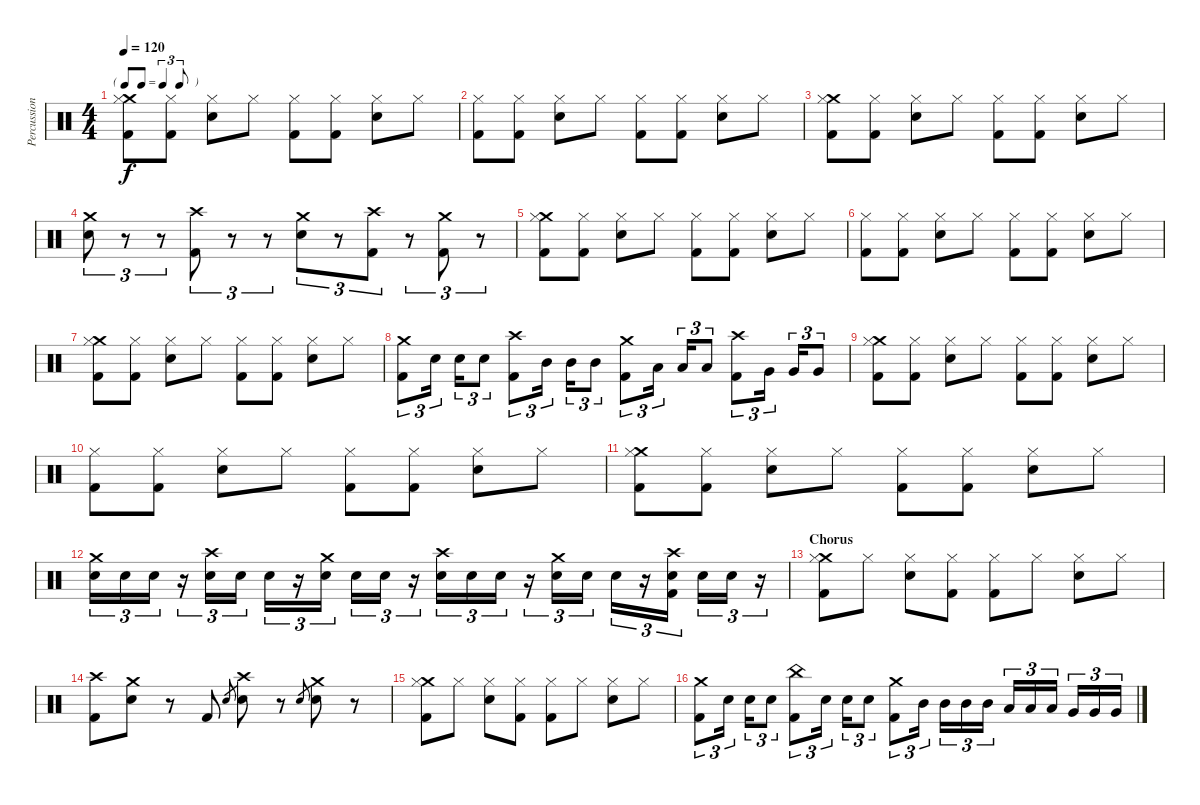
\track ("Percussion" "Percussion") {instrument percussion}
\staff {score}
\articulation defaults
\ts (4 4)
\tf triplet8th
\tempo 120
\clef neutral
\ks c
("Crash medium (hit)" "Hi-Hat (closed)" "Kick (hit) 2").8{dy f} ("Hi-Hat (closed)" "Kick (hit) 2").8 ("Hi-Hat (closed)" "Electric Snare (hit)").8 "Hi-Hat (closed)".8 ("Hi-Hat (closed)" "Kick (hit) 2").8 ("Hi-Hat (closed)" "Kick (hit) 2").8 ("Hi-Hat (closed)" "Electric Snare (hit)").8 "Hi-Hat (closed)".8 |
("Hi-Hat (closed)" "Kick (hit) 2").8 ("Hi-Hat (closed)" "Kick (hit) 2").8 ("Hi-Hat (closed)" "Electric Snare (hit)").8 "Hi-Hat (closed)".8 ("Hi-Hat (closed)" "Kick (hit) 2").8 ("Hi-Hat (closed)" "Kick (hit) 2").8 ("Hi-Hat (closed)" "Electric Snare (hit)").8 "Hi-Hat (closed)".8 |
("Crash medium (hit)" "Hi-Hat (closed)" "Kick (hit) 2").8 ("Hi-Hat (closed)" "Kick (hit) 2").8 ("Hi-Hat (closed)" "Electric Snare (hit)").8 "Hi-Hat (closed)".8 ("Hi-Hat (closed)" "Kick (hit) 2").8 ("Hi-Hat (closed)" "Kick (hit) 2").8 ("Hi-Hat (closed)" "Electric Snare (hit)").8 "Hi-Hat (closed)".8 |
("Crash medium (hit)" "Electric Snare (hit)").8{tu (3 2)} r.8{tu (3 2)} r.8{tu (3 2)} ("Crash high (hit)" "Kick (hit) 2").8{tu (3 2)} r.8{tu (3 2)} r.8{tu (3 2)} ("Crash medium (hit)" "Electric Snare (hit)").8{tu (3 2)} r.8{tu (3 2)} ("Crash high (hit)" "Kick (hit) 2").8{tu (3 2)} r.8{tu (3 2)} ("Crash medium (hit)" "Kick (hit) 2").8{tu (3 2)} r.8{tu (3 2)} |
("Crash medium (hit)" "Hi-Hat (closed)" "Kick (hit) 2").8 ("Hi-Hat (closed)" "Kick (hit) 2").8 ("Hi-Hat (closed)" "Electric Snare (hit)").8 "Hi-Hat (closed)".8 ("Hi-Hat (closed)" "Kick (hit) 2").8 ("Hi-Hat (closed)" "Kick (hit) 2").8 ("Hi-Hat (closed)" "Electric Snare (hit)").8 "Hi-Hat (closed)".8 |
("Hi-Hat (closed)" "Kick (hit) 2").8 ("Hi-Hat (closed)" "Kick (hit) 2").8 ("Hi-Hat (closed)" "Electric Snare (hit)").8 "Hi-Hat (closed)".8 ("Hi-Hat (closed)" "Kick (hit) 2").8 ("Hi-Hat (closed)" "Kick (hit) 2").8 ("Hi-Hat (closed)" "Electric Snare (hit)").8 "Hi-Hat (closed)".8 |
("Crash medium (hit)" "Hi-Hat (closed)" "Kick (hit) 2").8 ("Hi-Hat (closed)" "Kick (hit) 2").8 ("Hi-Hat (closed)" "Electric Snare (hit)").8 "Hi-Hat (closed)".8 ("Hi-Hat (closed)" "Kick (hit) 2").8 ("Hi-Hat (closed)" "Kick (hit) 2").8 ("Hi-Hat (closed)" "Electric Snare (hit)").8 "Hi-Hat (closed)".8 |
("Crash medium (hit)" "Kick (hit) 2").8{tu (3 2)} "Electric Snare (hit)".16{tu (3 2)} "Electric Snare (hit)".16{tu (3 2)} "Electric Snare (hit)".8{tu (3 2)} ("Crash high (hit)" "Kick (hit) 2").8{tu (3 2)} "Mid Tom (hit)".16{tu (3 2)} "Mid Tom (hit)".16{tu (3 2)} "Mid Tom (hit)".8{tu (3 2)} ("Crash medium (hit)" "Kick (hit) 2").8{tu (3 2)} "Low Tom (hit)".16{tu (3 2)} "Low Tom (hit)".16{tu (3 2)} "Low Tom (hit)".8{tu (3 2)} ("Crash high (hit)" "Kick (hit) 2").8{tu (3 2)} "Very Low Tom (hit)".16{tu (3 2)} "Very Low Tom (hit)".16{tu (3 2)} "Very Low Tom (hit)".8{tu (3 2)} |
("Crash medium (hit)" "Hi-Hat (closed)" "Kick (hit) 2").8 ("Hi-Hat (closed)" "Kick (hit) 2").8 ("Hi-Hat (closed)" "Electric Snare (hit)").8 "Hi-Hat (closed)".8 ("Hi-Hat (closed)" "Kick (hit) 2").8 ("Hi-Hat (closed)" "Kick (hit) 2").8 ("Hi-Hat (closed)" "Electric Snare (hit)").8 "Hi-Hat (closed)".8 |
("Hi-Hat (closed)" "Kick (hit) 2").8 ("Hi-Hat (closed)" "Kick (hit) 2").8 ("Hi-Hat (closed)" "Electric Snare (hit)").8 "Hi-Hat (closed)".8 ("Hi-Hat (closed)" "Kick (hit) 2").8 ("Hi-Hat (closed)" "Kick (hit) 2").8 ("Hi-Hat (closed)" "Electric Snare (hit)").8 "Hi-Hat (closed)".8 |
("Crash medium (hit)" "Hi-Hat (closed)" "Kick (hit) 2").8 ("Hi-Hat (closed)" "Kick (hit) 2").8 ("Hi-Hat (closed)" "Electric Snare (hit)").8 "Hi-Hat (closed)".8 ("Hi-Hat (closed)" "Kick (hit) 2").8 ("Hi-Hat (closed)" "Kick (hit) 2").8 ("Hi-Hat (closed)" "Electric Snare (hit)").8 "Hi-Hat (closed)".8 |
("Crash medium (hit)" "Electric Snare (hit)").16{tu (3 2)} "Electric Snare (hit)".16{tu (3 2)} "Electric Snare (hit)".16{tu (3 2)} r.16{tu (3 2)} ("Crash high (hit)" "Electric Snare (hit)").16{tu (3 2)} "Electric Snare (hit)".16{tu (3 2)} "Electric Snare (hit)".16{tu (3 2)} r.16{tu (3 2)} ("Crash medium (hit)" "Electric Snare (hit)").16{tu (3 2)} "Electric Snare (hit)".16{tu (3 2)} "Electric Snare (hit)".16{tu (3 2)} r.16{tu (3 2)} ("Crash high (hit)" "Electric Snare (hit)").16{tu (3 2)} "Electric Snare (hit)".16{tu (3 2)} "Electric Snare (hit)".16{tu (3 2)} r.16{tu (3 2)} ("Crash medium (hit)" "Electric Snare (hit)").16{tu (3 2)} "Electric Snare (hit)".16{tu (3 2)} "Electric Snare (hit)".16{tu (3 2)} r.16{tu (3 2)} ("Crash high (hit)" "Electric Snare (hit)" "Kick (hit) 2").16{tu (3 2)} "Electric Snare (hit)".16{tu (3 2)} "Electric Snare (hit)".16{tu (3 2)} r.16{tu (3 2)} |
\section ("" "Chorus")
("Crash medium (hit)" "Hi-Hat (closed)" "Kick (hit) 2").8 "Hi-Hat (closed)".8 ("Hi-Hat (closed)" "Electric Snare (hit)").8 ("Hi-Hat (closed)" "Kick (hit) 2").8 ("Hi-Hat (closed)" "Kick (hit) 2").8 "Hi-Hat (closed)".8 ("Hi-Hat (closed)" "Electric Snare (hit)").8 "Hi-Hat (closed)".8 |
("Crash high (hit)" "Kick (hit) 2").8 ("Crash medium (hit)" "Electric Snare (hit)").8 r.8 "Kick (hit) 2".8 "Electric Snare (hit)".8{gr} ("Crash high (hit)" "Electric Snare (hit)").8 r.8 "Electric Snare (hit)".8{gr} ("Crash medium (hit)" "Electric Snare (hit)").8 r.8 |
("Crash medium (hit)" "Hi-Hat (closed)" "Kick (hit) 2").8 "Hi-Hat (closed)".8 ("Hi-Hat (closed)" "Electric Snare (hit)").8 ("Hi-Hat (closed)" "Kick (hit) 2").8 ("Hi-Hat (closed)" "Kick (hit) 2").8 "Hi-Hat (closed)".8 ("Hi-Hat (closed)" "Electric Snare (hit)").8 "Hi-Hat (closed)".8 |
("Crash medium (hit)" "Kick (hit) 2").8{tu (3 2)} "Electric Snare (hit)".16{tu (3 2)} "Electric Snare (hit)".16{tu (3 2)} "Electric Snare (hit)".8{tu (3 2)} ("China (hit)" "Kick (hit) 2").8{tu (3 2)} "Electric Snare (hit)".16{tu (3 2)} "Electric Snare (hit)".16{tu (3 2)} "Electric Snare (hit)".8{tu (3 2)} ("Crash medium (hit)" "Kick (hit) 2").8{tu (3 2)} "Mid Tom (hit)".16{tu (3 2)} "Mid Tom (hit)".16{tu (3 2)} "Mid Tom (hit)".16{tu (3 2)} "Mid Tom (hit)".16{tu (3 2)} "Low Tom (hit)".16{tu (3 2)} "Low Tom (hit)".16{tu (3 2)} "Low Tom (hit)".16{tu (3 2)} "Very Low Tom (hit)".16{tu (3 2)} "Very Low Tom (hit)".16{tu (3 2)} "Very Low Tom (hit)".16{tu (3 2)}
